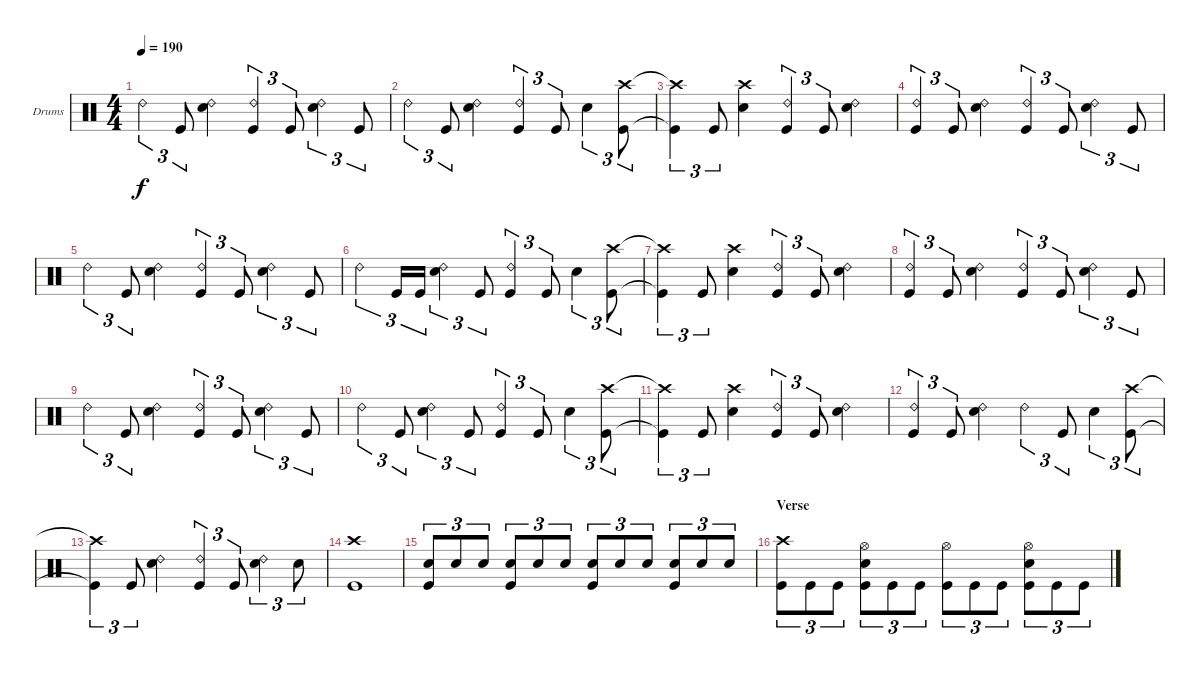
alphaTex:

\bracketExtendMode groupsimilarinstruments
\firstSystemTrackNameOrientation horizontal
\otherSystemsTrackNameOrientation horizontal
\track ("Drums" "Drums") {instrument percussion}
\staff {score}
\articulation defaults
\ts (4 4)
\tempo 190
\clef neutral
\ks c "Ride (bell) 2".4{tu (3 2) dy f} "Kick (hit)".8{tu (3 2)}
("Snare (hit) 2" "Ride (bell) 2").4 ("Kick (hit)" "Ride (bell) 2").4{tu (3 2)} "Kick (hit)".8{tu (3 2)} ("Snare (hit) 2" "Ride (bell) 2").4{tu (3 2)} "Kick (hit)".8{tu (3 2)} |
"Ride (bell) 2".4{tu (3 2)} "Kick (hit)".8{tu (3 2)} ("Snare (hit) 2" "Ride (bell) 2").4 ("Kick (hit)" "Ride (bell) 2").4{tu (3 2)} "Kick (hit)".8{tu (3 2)} "Snare (hit) 2".4{tu (3 2)} ("Kick (hit)" "Crash high (hit)").8{tu (3 2)} |
("Kick (hit)"{t} "Crash high (hit)"{t}).4{tu (3 2)} "Kick (hit)".8{tu (3 2)} ("Snare (hit) 2" "Crash high (hit)").4 ("Kick (hit)" "Ride (bell) 2").4{tu (3 2)} "Kick (hit)".8{tu (3 2)} ("Snare (hit) 2" "Ride (bell) 2").4 |
("Kick (hit)" "Ride (bell) 2").4{tu (3 2)} "Kick (hit)".8{tu (3 2)} ("Snare (hit) 2" "Ride (bell) 2").4 ("Kick (hit)" "Ride (bell) 2").4{tu (3 2)} "Kick (hit)".8{tu (3 2)} ("Snare (hit) 2" "Ride (bell) 2").4{tu (3 2)} "Kick (hit)".8{tu (3 2)} |
"Ride (bell) 2".4{tu (3 2)} "Kick (hit)".8{tu (3 2)} ("Snare (hit) 2" "Ride (bell) 2").4 ("Kick (hit)" "Ride (bell) 2").4{tu (3 2)} "Kick (hit)".8{tu (3 2)} ("Snare (hit) 2" "Ride (bell) 2").4{tu (3 2)} "Kick (hit)".8{tu (3 2)} |
"Ride (bell) 2".4{tu (3 2)} "Kick (hit)".16{tu (3 2)} "Kick (hit)".16{tu (3 2)} ("Snare (hit) 2" "Ride (bell) 2").4{tu (3 2)} "Kick (hit)".8{tu (3 2)} ("Kick (hit)" "Ride (bell) 2").4{tu (3 2)} "Kick (hit)".8{tu (3 2)} "Snare (hit) 2".4{tu (3 2)} ("Kick (hit)" "Crash high (hit)").8{tu (3 2)} |
("Kick (hit)"{t} "Crash high (hit)"{t}).4{tu (3 2)} "Kick (hit)".8{tu (3 2)} ("Snare (hit) 2" "Crash high (hit)").4 ("Kick (hit)" "Ride (bell) 2").4{tu (3 2)} "Kick (hit)".8{tu (3 2)} ("Snare (hit) 2" "Ride (bell) 2").4 |
("Kick (hit)" "Ride (bell) 2").4{tu (3 2)} "Kick (hit)".8{tu (3 2)} ("Snare (hit) 2" "Ride (bell) 2").4 ("Kick (hit)" "Ride (bell) 2").4{tu (3 2)} "Kick (hit)".8{tu (3 2)} ("Snare (hit) 2" "Ride (bell) 2").4{tu (3 2)} "Kick (hit)".8{tu (3 2)} |
"Ride (bell) 2".4{tu (3 2)} "Kick (hit)".8{tu (3 2)} ("Snare (hit) 2" "Ride (bell) 2").4 ("Kick (hit)" "Ride (bell) 2").4{tu (3 2)} "Kick (hit)".8{tu (3 2)} ("Snare (hit) 2" "Ride (bell) 2").4{tu (3 2)} "Kick (hit)".8{tu (3 2)} |
"Ride (bell) 2".4{tu (3 2)} "Kick (hit)".8{tu (3 2)} ("Snare (hit) 2" "Ride (bell) 2").4{tu (3 2)} "Kick (hit)".8{tu (3 2)} ("Kick (hit)" "Ride (bell) 2").4{tu (3 2)} "Kick (hit)".8{tu (3 2)} "Snare (hit) 2".4{tu (3 2)} ("Kick (hit)" "Crash high (hit)").8{tu (3 2)} |
("Kick (hit)"{t} "Crash high (hit)"{t}).4{tu (3 2)} "Kick (hit)".8{tu (3 2)} ("Snare (hit) 2" "Crash high (hit)").4 ("Kick (hit)" "Ride (bell) 2").4{tu (3 2)} "Kick (hit)".8{tu (3 2)} ("Snare (hit) 2" "Ride (bell) 2").4 |
("Kick (hit)" "Ride (bell) 2").4{tu (3 2)} "Kick (hit)".8{tu (3 2)} ("Snare (hit) 2" "Ride (bell) 2").4 "Ride (bell) 2".4{tu (3 2)} "Kick (hit)".8{tu (3 2)} "Snare (hit) 2".4{tu (3 2)} ("Kick (hit)" "Crash high (hit)").8{tu (3 2)} |
("Kick (hit)"{t} "Crash high (hit)"{t}).4{tu (3 2)} "Kick (hit)".8{tu (3 2)} ("Snare (hit) 2" "Ride (bell) 2").4 ("Kick (hit)" "Ride (bell) 2").4{tu (3 2)} "Kick (hit)".8{tu (3 2)} ("Snare (hit) 2" "Ride (bell) 2").4{tu (3 2)} "Snare (hit) 2".8{tu (3 2)} |
("Kick (hit)" "Crash high (hit)").1 |
("Snare (hit) 2" "Kick (hit)").8{tu (3 2)} "Snare (hit) 2".8{tu (3 2)} "Snare (hit) 2".8{tu (3 2)} ("Snare (hit) 2" "Kick (hit)").8{tu (3 2)} "Snare (hit) 2".8{tu (3 2)} "Snare (hit) 2".8{tu (3 2)} ("Snare (hit) 2" "Kick (hit)").8{tu (3 2)} "Snare (hit) 2".8{tu (3 2)} "Snare (hit) 2".8{tu (3 2)} ("Snare (hit) 2" "Kick (hit)").8{tu (3 2)} "Snare (hit) 2".8{tu (3 2)} "Snare (hit) 2".8{tu (3 2)} |
\section ("" "Verse")
("Kick (hit)" "Crash high (hit)").8{tu (3 2)} "Kick (hit)".8{tu (3 2)} "Kick (hit)".8{tu (3 2)} ("Snare (hit) 2" "Kick (hit)" "Hi-Hat (open)").8{tu (3 2)} "Kick (hit)".8{tu (3 2)} "Kick (hit)".8{tu (3 2)} ("Kick (hit)" "Hi-Hat (open)").8{tu (3 2)} "Kick (hit)".8{tu (3 2)} "Kick (hit)".8{tu (3 2)} ("Snare (hit) 2" "Kick (hit)" "Hi-Hat (open)").8{tu (3 2)} "Kick (hit)".8{tu (3 2)} "Kick (hit)".8{tu (3 2)}
